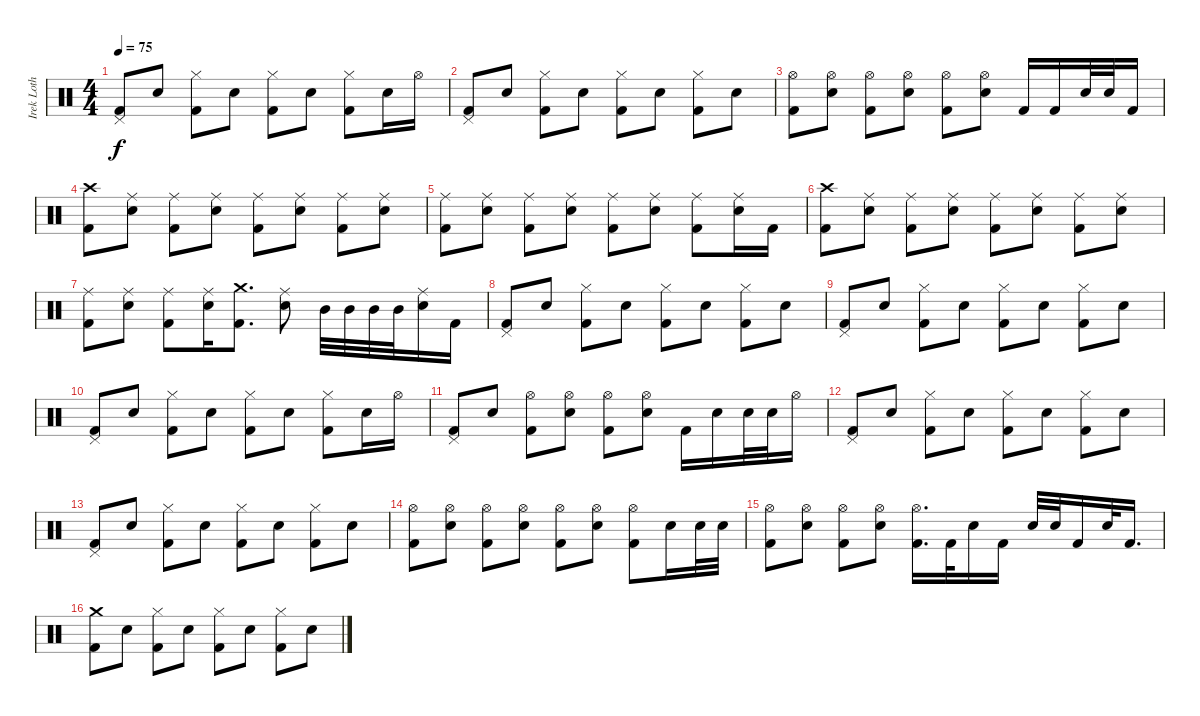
\track ("Irek Loth" "Irek Loth") {instrument percussion}
\staff {score}
\articulation defaults
\ts (4 4)
\tempo 75
\clef neutral
\ks c
("Pedal Hi-Hat (hit)" "Kick (hit) 2").8{dy f} "Snare (hit) 2".8 ("Hi-Hat (closed)" "Kick (hit) 2").8 "Snare (hit) 2".8 ("Hi-Hat (closed)" "Kick (hit) 2").8 "Snare (hit) 2".8 ("Hi-Hat (closed)" "Kick (hit) 2").8 "Snare (hit) 2".16 "Hi-Hat (open)".16 |
("Pedal Hi-Hat (hit)" "Kick (hit) 2").8 "Snare (hit) 2".8 ("Hi-Hat (closed)" "Kick (hit) 2").8 "Snare (hit) 2".8 ("Hi-Hat (closed)" "Kick (hit) 2").8 "Snare (hit) 2".8 ("Hi-Hat (closed)" "Kick (hit) 2").8 "Snare (hit) 2".8 |
("Hi-Hat (open)" "Kick (hit) 2").8 ("Snare (hit) 2" "Hi-Hat (open)").8 ("Hi-Hat (open)" "Kick (hit) 2").8 ("Snare (hit) 2" "Hi-Hat (open)").8 ("Hi-Hat (open)" "Kick (hit) 2").8 ("Snare (hit) 2" "Hi-Hat (open)").8 "Kick (hit) 2".16 "Kick (hit) 2".16 "Snare (hit) 2".32 "Snare (hit) 2".32 "Kick (hit) 2".16 |
("Crash high (hit)" "Kick (hit) 2").8 ("Snare (hit) 2" "Ride (middle)").8 ("Ride (middle)" "Kick (hit) 2").8 ("Snare (hit) 2" "Ride (middle)").8 ("Ride (middle)" "Kick (hit) 2").8 ("Snare (hit) 2" "Ride (middle)").8 ("Ride (middle)" "Kick (hit) 2").8 ("Snare (hit) 2" "Ride (middle)").8 |
("Ride (middle)" "Kick (hit) 2").8 ("Snare (hit) 2" "Ride (middle)").8 ("Ride (middle)" "Kick (hit) 2").8 ("Snare (hit) 2" "Ride (middle)").8 ("Ride (middle)" "Kick (hit) 2").8 ("Snare (hit) 2" "Ride (middle)").8 ("Ride (middle)" "Kick (hit) 2").8 ("Snare (hit) 2" "Ride (middle)").16 "Kick (hit) 2".16 |
("Crash high (hit)" "Kick (hit) 2").8 ("Snare (hit) 2" "Ride (middle)").8 ("Ride (middle)" "Kick (hit) 2").8 ("Snare (hit) 2" "Ride (middle)").8 ("Ride (middle)" "Kick (hit) 2").8 ("Snare (hit) 2" "Ride (middle)").8 ("Ride (middle)" "Kick (hit) 2").8 ("Snare (hit) 2" "Ride (middle)").8 |
("Ride (middle)" "Kick (hit) 2").8 ("Snare (hit) 2" "Ride (middle)").8 ("Ride (middle)" "Kick (hit) 2").8 ("Snare (hit) 2" "Ride (middle)").16 ("Crash medium (hit)" "Kick (hit) 2").8{d} ("Snare (hit) 2" "Ride (middle)").8 "Mid Tom (hit)".32 "Mid Tom (hit)".32 "Mid Tom (hit)".32 "Mid Tom (hit)".32 ("Snare (hit) 2" "Ride (middle)").16 "Kick (hit) 2".16 |
("Pedal Hi-Hat (hit)" "Kick (hit) 2").8 "Snare (hit) 2".8 ("Hi-Hat (closed)" "Kick (hit) 2").8 "Snare (hit) 2".8 ("Hi-Hat (closed)" "Kick (hit) 2").8 "Snare (hit) 2".8 ("Hi-Hat (closed)" "Kick (hit) 2").8 "Snare (hit) 2".8 |
("Pedal Hi-Hat (hit)" "Kick (hit) 2").8 "Snare (hit) 2".8 ("Hi-Hat (closed)" "Kick (hit) 2").8 "Snare (hit) 2".8 ("Hi-Hat (closed)" "Kick (hit) 2").8 "Snare (hit) 2".8 ("Hi-Hat (closed)" "Kick (hit) 2").8 "Snare (hit) 2".8 |
("Pedal Hi-Hat (hit)" "Kick (hit) 2").8 "Snare (hit) 2".8 ("Hi-Hat (closed)" "Kick (hit) 2").8 "Snare (hit) 2".8 ("Hi-Hat (closed)" "Kick (hit) 2").8 "Snare (hit) 2".8 ("Hi-Hat (closed)" "Kick (hit) 2").8 "Snare (hit) 2".16 "Hi-Hat (open)".16 |
("Pedal Hi-Hat (hit)" "Kick (hit) 2").8 "Snare (hit) 2".8 ("Hi-Hat (open)" "Kick (hit) 2").8 ("Snare (hit) 2" "Hi-Hat (open)").8 ("Hi-Hat (open)" "Kick (hit) 2").8 ("Snare (hit) 2" "Hi-Hat (open)").8 "Kick (hit) 2".16 "Snare (hit) 2".16 "Snare (hit) 2".32 "Snare (hit) 2".32 "Hi-Hat (open)".16 |
("Pedal Hi-Hat (hit)" "Kick (hit) 2").8 "Snare (hit) 2".8 ("Hi-Hat (closed)" "Kick (hit) 2").8 "Snare (hit) 2".8 ("Hi-Hat (closed)" "Kick (hit) 2").8 "Snare (hit) 2".8 ("Hi-Hat (closed)" "Kick (hit) 2").8 "Snare (hit) 2".8 |
("Pedal Hi-Hat (hit)" "Kick (hit) 2").8 "Snare (hit) 2".8 ("Hi-Hat (closed)" "Kick (hit) 2").8 "Snare (hit) 2".8 ("Hi-Hat (closed)" "Kick (hit) 2").8 "Snare (hit) 2".8 ("Hi-Hat (closed)" "Kick (hit) 2").8 "Snare (hit) 2".8 |
("Hi-Hat (open)" "Kick (hit) 2").8 ("Snare (hit) 2" "Hi-Hat (open)").8 ("Hi-Hat (open)" "Kick (hit) 2").8 ("Snare (hit) 2" "Hi-Hat (open)").8 ("Hi-Hat (open)" "Kick (hit) 2").8 ("Snare (hit) 2" "Hi-Hat (open)").8 ("Hi-Hat (open)" "Kick (hit) 2").8 "Snare (hit) 2".16 "Snare (hit) 2".32 "Snare (hit) 2".32 |
("Hi-Hat (open)" "Kick (hit) 2").8 ("Snare (hit) 2" "Hi-Hat (open)").8 ("Hi-Hat (open)" "Kick (hit) 2").8 ("Snare (hit) 2" "Hi-Hat (open)").8 ("Hi-Hat (open)" "Kick (hit) 2").16{d} "Kick (hit) 2".32 "Snare (hit) 2".16 "Kick (hit) 2".16 "Snare (hit) 2".32 "Snare (hit) 2".32 "Kick (hit) 2".16 "Snare (hit) 2".32 "Kick (hit) 2".16{d} |
("Crash medium (hit)" "Kick (hit) 2").8 "Snare (hit) 2".8 ("Hi-Hat (closed)" "Kick (hit) 2").8 "Snare (hit) 2".8 ("Hi-Hat (closed)" "Kick (hit) 2").8 "Snare (hit) 2".8 ("Hi-Hat (closed)" "Kick (hit) 2").8 "Snare (hit) 2".8
